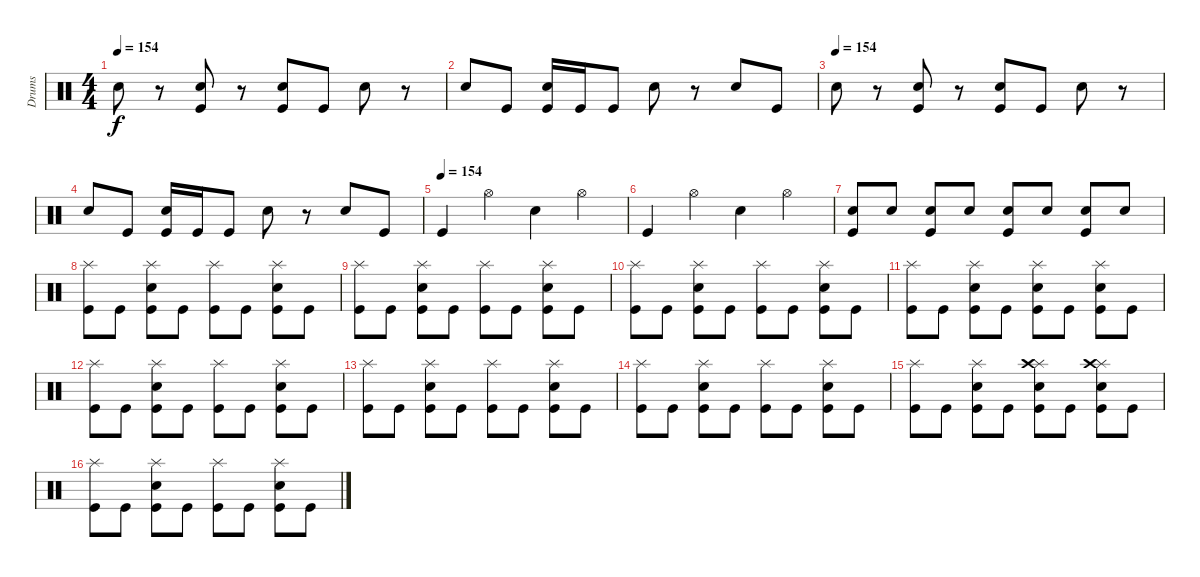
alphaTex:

\track ("Drums" "Drums") {instrument percussion}
\staff {score}
\articulation defaults
\ts (4 4)
\tempo 154
\clef neutral
\ks c "Snare (hit) 2".8{dy f}
r.8 ("Kick (hit)" "Snare (hit) 2").8 r.8 ("Kick (hit)" "Snare (hit) 2").8 "Kick (hit)".8 "Snare (hit) 2".8 r.8 |
"Snare (hit) 2".8 "Kick (hit)".8 ("Snare (hit) 2" "Kick (hit)").16 "Kick (hit)".16 "Kick (hit)".8 "Snare (hit) 2".8 r.8 "Snare (hit) 2".8 "Kick (hit)".8 |
\tempo (154)
"Snare (hit) 2".8 r.8 ("Kick (hit)" "Snare (hit) 2").8 r.8 ("Kick (hit)" "Snare (hit) 2").8 "Kick (hit)".8 "Snare (hit) 2".8 r.8 |
"Snare (hit) 2".8 "Kick (hit)".8 ("Snare (hit) 2" "Kick (hit)").16 "Kick (hit)".16 "Kick (hit)".8 "Snare (hit) 2".8 r.8 "Snare (hit) 2".8 "Kick (hit)".8 |
\tempo (154)
"Kick (hit)".4 "Hi-Hat (open)".4 "Snare (hit) 2".4 "Hi-Hat (open)".4 |
"Kick (hit)".4 "Hi-Hat (open)".4 "Snare (hit) 2".4 "Hi-Hat (open)".4 |
("Kick (hit)" "Snare (hit) 2").8 "Snare (hit) 2".8 ("Kick (hit)" "Snare (hit) 2").8 "Snare (hit) 2".8 ("Kick (hit)" "Snare (hit) 2").8 "Snare (hit) 2".8 ("Kick (hit)" "Snare (hit) 2").8 "Snare (hit) 2".8 |
("Splash (hit)" "Kick (hit)").8 "Kick (hit)".8 ("Splash (hit)" "Snare (hit) 2" "Kick (hit)").8 "Kick (hit)".8 ("Splash (hit)" "Kick (hit)").8 "Kick (hit)".8 ("Splash (hit)" "Snare (hit) 2" "Kick (hit)").8 "Kick (hit)".8 |
("Splash (hit)" "Kick (hit)").8 "Kick (hit)".8 ("Splash (hit)" "Snare (hit) 2" "Kick (hit)").8 "Kick (hit)".8 ("Splash (hit)" "Kick (hit)").8 "Kick (hit)".8 ("Splash (hit)" "Snare (hit) 2" "Kick (hit)").8 "Kick (hit)".8 |
("Splash (hit)" "Kick (hit)").8 "Kick (hit)".8 ("Splash (hit)" "Snare (hit) 2" "Kick (hit)").8 "Kick (hit)".8 ("Splash (hit)" "Kick (hit)").8 "Kick (hit)".8 ("Splash (hit)" "Snare (hit) 2" "Kick (hit)").8 "Kick (hit)".8 |
("Splash (hit)" "Kick (hit)").8 "Kick (hit)".8 ("Splash (hit)" "Snare (hit) 2" "Kick (hit)").8 "Kick (hit)".8 ("Splash (hit)" "Kick (hit)" "Snare (hit) 2").8 "Kick (hit)".8 ("Splash (hit)" "Snare (hit) 2" "Kick (hit)").8 "Kick (hit)".8 |
("Splash (hit)" "Kick (hit)").8 "Kick (hit)".8 ("Splash (hit)" "Snare (hit) 2" "Kick (hit)").8 "Kick (hit)".8 ("Splash (hit)" "Kick (hit)").8 "Kick (hit)".8 ("Splash (hit)" "Snare (hit) 2" "Kick (hit)").8 "Kick (hit)".8 |
("Splash (hit)" "Kick (hit)").8 "Kick (hit)".8 ("Splash (hit)" "Snare (hit) 2" "Kick (hit)").8 "Kick (hit)".8 ("Splash (hit)" "Kick (hit)").8 "Kick (hit)".8 ("Splash (hit)" "Snare (hit) 2" "Kick (hit)").8 "Kick (hit)".8 |
("Splash (hit)" "Kick (hit)").8 "Kick (hit)".8 ("Splash (hit)" "Snare (hit) 2" "Kick (hit)").8 "Kick (hit)".8 ("Splash (hit)" "Kick (hit)").8 "Kick (hit)".8 ("Splash (hit)" "Snare (hit) 2" "Kick (hit)").8 "Kick (hit)".8 |
("Splash (hit)" "Kick (hit)").8 "Kick (hit)".8 ("Splash (hit)" "Snare (hit) 2" "Kick (hit)").8 "Kick (hit)".8 ("Splash (hit)" "Kick (hit)" "Crash high (hit)" "Snare (hit) 2").8 "Kick (hit)".8 ("Splash (hit)" "Snare (hit) 2" "Kick (hit)" "Crash high (hit)").8 "Kick (hit)".8 |
("Splash (hit)" "Kick (hit)").8 "Kick (hit)".8 ("Splash (hit)" "Snare (hit) 2" "Kick (hit)").8 "Kick (hit)".8 ("Splash (hit)" "Kick (hit)").8 "Kick (hit)".8 ("Splash (hit)" "Snare (hit) 2" "Kick (hit)").8 "Kick (hit)".8
